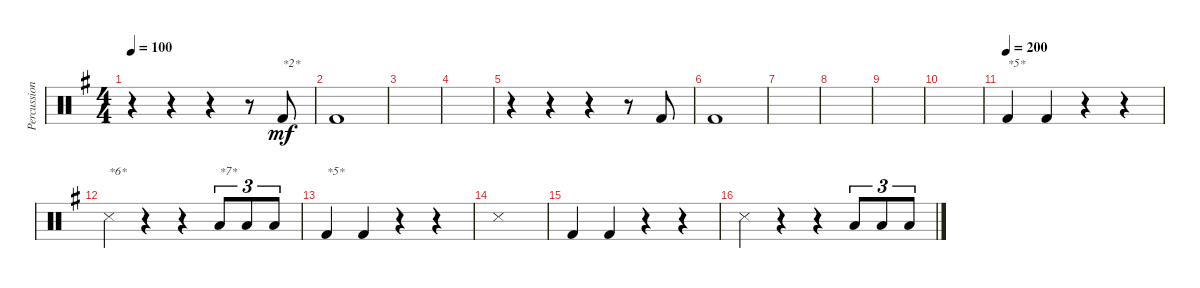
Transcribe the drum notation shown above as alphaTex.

\track ("Percussion" "Percussion") {instrument percussion}
\staff {score}
\articulation defaults
\ts (4 4)
\tempo 100
\clef neutral
\ks g
r.4{dy mf} r.4 r.4 r.8 "Kick (hit) 2".8{txt "*2*"} |
\section ("" "")
"Kick (hit) 2".1 |
|
|
r.4 r.4 r.4 r.8 "Kick (hit) 2".8 |
"Kick (hit) 2".1 |
|
|
|
|
\section ("" "")
\tempo (200)
"Kick (hit) 2".4{txt "*5*"} "Kick (hit) 2".4 r.4 r.4 |
"Snare (side stick) 3".4{txt "*6*"} r.4 r.4 "Low Tom (hit)".8{tu (3 2) txt "*7*"} "Low Tom (hit)".8{tu (3 2)} "Low Tom (hit)".8{tu (3 2)} |
"Kick (hit) 2".4{txt "*5*"} "Kick (hit) 2".4 r.4 r.4 |
"Snare (side stick) 3".1 |
"Kick (hit) 2".4 "Kick (hit) 2".4 r.4 r.4 |
"Snare (side stick) 3".4 r.4 r.4 "Low Tom (hit)".8{tu (3 2)} "Low Tom (hit)".8{tu (3 2)} "Low Tom (hit)".8{tu (3 2)}
